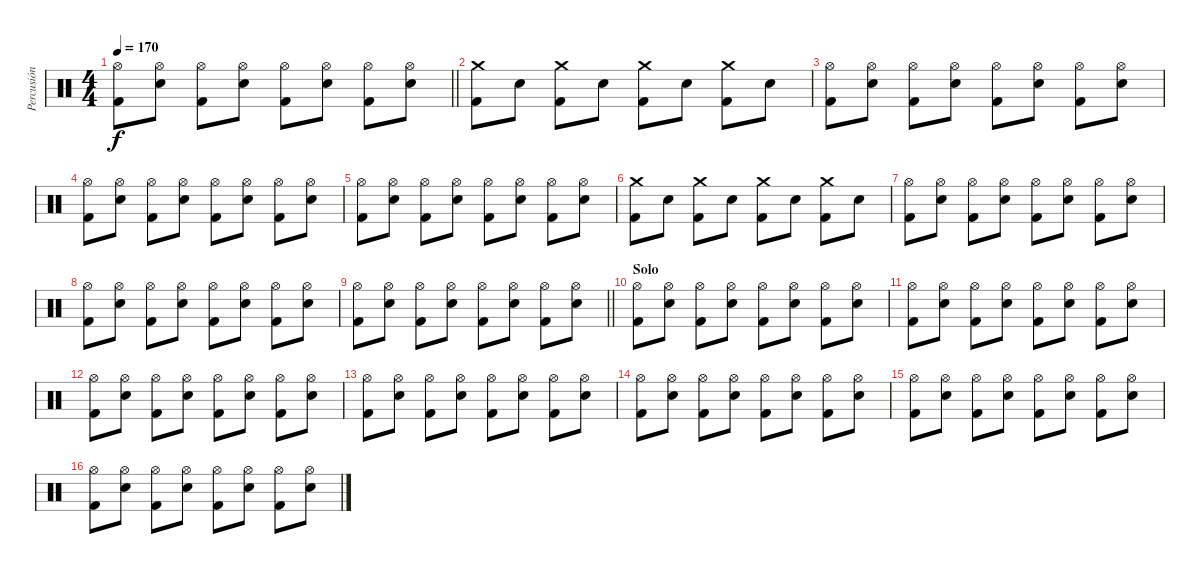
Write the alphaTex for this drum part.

\track ("Percusión" "Percusión") {instrument percussion}
\staff {score}
\articulation defaults
\ts (4 4)
\tempo 170
\clef neutral
\barLineRight lightlight
\ks c
("Hi-Hat (open)" "Kick (hit) 2").8{dy f} ("Hi-Hat (open)" "Snare (hit) 2").8 ("Hi-Hat (open)" "Kick (hit) 2").8 ("Hi-Hat (open)" "Snare (hit) 2").8 ("Hi-Hat (open)" "Kick (hit) 2").8 ("Hi-Hat (open)" "Snare (hit) 2").8 ("Hi-Hat (open)" "Kick (hit) 2").8 ("Hi-Hat (open)" "Snare (hit) 2").8 |
("Crash medium (hit)" "Kick (hit) 2").8 "Snare (hit) 2".8 ("Crash medium (hit)" "Kick (hit) 2").8 "Snare (hit) 2".8 ("Crash medium (hit)" "Kick (hit) 2").8 "Snare (hit) 2".8 ("Crash medium (hit)" "Kick (hit) 2").8 "Snare (hit) 2".8 |
("Hi-Hat (open)" "Kick (hit) 2").8 ("Hi-Hat (open)" "Snare (hit) 2").8 ("Hi-Hat (open)" "Kick (hit) 2").8 ("Hi-Hat (open)" "Snare (hit) 2").8 ("Hi-Hat (open)" "Kick (hit) 2").8 ("Hi-Hat (open)" "Snare (hit) 2").8 ("Hi-Hat (open)" "Kick (hit) 2").8 ("Hi-Hat (open)" "Snare (hit) 2").8 |
("Hi-Hat (open)" "Kick (hit) 2").8 ("Hi-Hat (open)" "Snare (hit) 2").8 ("Hi-Hat (open)" "Kick (hit) 2").8 ("Hi-Hat (open)" "Snare (hit) 2").8 ("Hi-Hat (open)" "Kick (hit) 2").8 ("Hi-Hat (open)" "Snare (hit) 2").8 ("Hi-Hat (open)" "Kick (hit) 2").8 ("Hi-Hat (open)" "Snare (hit) 2").8 |
("Hi-Hat (open)" "Kick (hit) 2").8 ("Hi-Hat (open)" "Snare (hit) 2").8 ("Hi-Hat (open)" "Kick (hit) 2").8 ("Hi-Hat (open)" "Snare (hit) 2").8 ("Hi-Hat (open)" "Kick (hit) 2").8 ("Hi-Hat (open)" "Snare (hit) 2").8 ("Hi-Hat (open)" "Kick (hit) 2").8 ("Hi-Hat (open)" "Snare (hit) 2").8 |
("Crash medium (hit)" "Kick (hit) 2").8 "Snare (hit) 2".8 ("Crash medium (hit)" "Kick (hit) 2").8 "Snare (hit) 2".8 ("Crash medium (hit)" "Kick (hit) 2").8 "Snare (hit) 2".8 ("Crash medium (hit)" "Kick (hit) 2").8 "Snare (hit) 2".8 |
("Hi-Hat (open)" "Kick (hit) 2").8 ("Hi-Hat (open)" "Snare (hit) 2").8 ("Hi-Hat (open)" "Kick (hit) 2").8 ("Hi-Hat (open)" "Snare (hit) 2").8 ("Hi-Hat (open)" "Kick (hit) 2").8 ("Hi-Hat (open)" "Snare (hit) 2").8 ("Hi-Hat (open)" "Kick (hit) 2").8 ("Hi-Hat (open)" "Snare (hit) 2").8 |
("Hi-Hat (open)" "Kick (hit) 2").8 ("Hi-Hat (open)" "Snare (hit) 2").8 ("Hi-Hat (open)" "Kick (hit) 2").8 ("Hi-Hat (open)" "Snare (hit) 2").8 ("Hi-Hat (open)" "Kick (hit) 2").8 ("Hi-Hat (open)" "Snare (hit) 2").8 ("Hi-Hat (open)" "Kick (hit) 2").8 ("Hi-Hat (open)" "Snare (hit) 2").8 |
\barLineRight lightlight
("Hi-Hat (open)" "Kick (hit) 2").8 ("Hi-Hat (open)" "Snare (hit) 2").8 ("Hi-Hat (open)" "Kick (hit) 2").8 ("Hi-Hat (open)" "Snare (hit) 2").8 ("Hi-Hat (open)" "Kick (hit) 2").8 ("Hi-Hat (open)" "Snare (hit) 2").8 ("Hi-Hat (open)" "Kick (hit) 2").8 ("Hi-Hat (open)" "Snare (hit) 2").8 |
\section ("" "Solo")
("Hi-Hat (open)" "Kick (hit) 2").8 ("Hi-Hat (open)" "Snare (hit) 2").8 ("Hi-Hat (open)" "Kick (hit) 2").8 ("Hi-Hat (open)" "Snare (hit) 2").8 ("Hi-Hat (open)" "Kick (hit) 2").8 ("Hi-Hat (open)" "Snare (hit) 2").8 ("Hi-Hat (open)" "Kick (hit) 2").8 ("Hi-Hat (open)" "Snare (hit) 2").8 |
("Hi-Hat (open)" "Kick (hit) 2").8 ("Hi-Hat (open)" "Snare (hit) 2").8 ("Hi-Hat (open)" "Kick (hit) 2").8 ("Hi-Hat (open)" "Snare (hit) 2").8 ("Hi-Hat (open)" "Kick (hit) 2").8 ("Hi-Hat (open)" "Snare (hit) 2").8 ("Hi-Hat (open)" "Kick (hit) 2").8 ("Hi-Hat (open)" "Snare (hit) 2").8 |
("Hi-Hat (open)" "Kick (hit) 2").8 ("Hi-Hat (open)" "Snare (hit) 2").8 ("Hi-Hat (open)" "Kick (hit) 2").8 ("Hi-Hat (open)" "Snare (hit) 2").8 ("Hi-Hat (open)" "Kick (hit) 2").8 ("Hi-Hat (open)" "Snare (hit) 2").8 ("Hi-Hat (open)" "Kick (hit) 2").8 ("Hi-Hat (open)" "Snare (hit) 2").8 |
("Hi-Hat (open)" "Kick (hit) 2").8 ("Hi-Hat (open)" "Snare (hit) 2").8 ("Hi-Hat (open)" "Kick (hit) 2").8 ("Hi-Hat (open)" "Snare (hit) 2").8 ("Hi-Hat (open)" "Kick (hit) 2").8 ("Hi-Hat (open)" "Snare (hit) 2").8 ("Hi-Hat (open)" "Kick (hit) 2").8 ("Hi-Hat (open)" "Snare (hit) 2").8 |
("Hi-Hat (open)" "Kick (hit) 2").8 ("Hi-Hat (open)" "Snare (hit) 2").8 ("Hi-Hat (open)" "Kick (hit) 2").8 ("Hi-Hat (open)" "Snare (hit) 2").8 ("Hi-Hat (open)" "Kick (hit) 2").8 ("Hi-Hat (open)" "Snare (hit) 2").8 ("Hi-Hat (open)" "Kick (hit) 2").8 ("Hi-Hat (open)" "Snare (hit) 2").8 |
("Hi-Hat (open)" "Kick (hit) 2").8 ("Hi-Hat (open)" "Snare (hit) 2").8 ("Hi-Hat (open)" "Kick (hit) 2").8 ("Hi-Hat (open)" "Snare (hit) 2").8 ("Hi-Hat (open)" "Kick (hit) 2").8 ("Hi-Hat (open)" "Snare (hit) 2").8 ("Hi-Hat (open)" "Kick (hit) 2").8 ("Hi-Hat (open)" "Snare (hit) 2").8 |
("Hi-Hat (open)" "Kick (hit) 2").8 ("Hi-Hat (open)" "Snare (hit) 2").8 ("Hi-Hat (open)" "Kick (hit) 2").8 ("Hi-Hat (open)" "Snare (hit) 2").8 ("Hi-Hat (open)" "Kick (hit) 2").8 ("Hi-Hat (open)" "Snare (hit) 2").8 ("Hi-Hat (open)" "Kick (hit) 2").8 ("Hi-Hat (open)" "Snare (hit) 2").8
